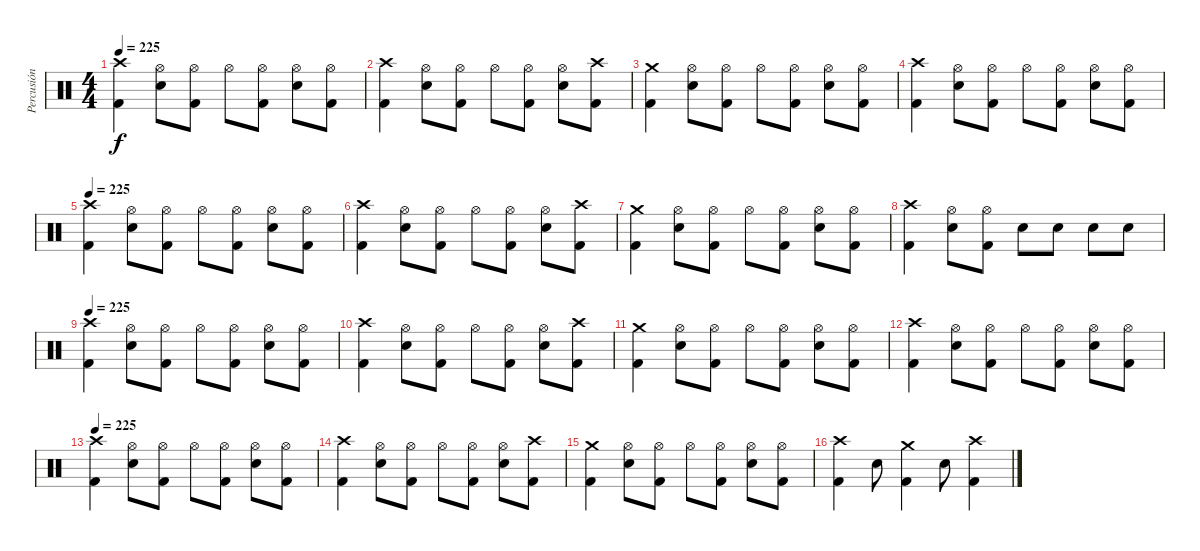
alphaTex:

\track ("Percusión" "Percusión") {instrument percussion}
\staff {score}
\articulation defaults
\ts (4 4)
\tempo 225
\clef neutral
\ks c
("Crash high (hit)" "Kick (hit) 2").4{dy f} ("Hi-Hat (open)" "Electric Snare (hit)").8 ("Hi-Hat (open)" "Kick (hit) 2").8 "Hi-Hat (open)".8 ("Hi-Hat (open)" "Kick (hit) 2").8 ("Hi-Hat (open)" "Electric Snare (hit)").8 ("Hi-Hat (open)" "Kick (hit) 2").8 |
("Crash high (hit)" "Kick (hit) 2").4 ("Hi-Hat (open)" "Electric Snare (hit)").8 ("Hi-Hat (open)" "Kick (hit) 2").8 "Hi-Hat (open)".8 ("Hi-Hat (open)" "Kick (hit) 2").8 ("Hi-Hat (open)" "Electric Snare (hit)").8 ("Crash high (hit)" "Kick (hit) 2").8 |
("Crash medium (hit)" "Kick (hit) 2").4 ("Hi-Hat (open)" "Electric Snare (hit)").8 ("Hi-Hat (open)" "Kick (hit) 2").8 "Hi-Hat (open)".8 ("Hi-Hat (open)" "Kick (hit) 2").8 ("Hi-Hat (open)" "Electric Snare (hit)").8 ("Hi-Hat (open)" "Kick (hit) 2").8 |
("Crash high (hit)" "Kick (hit) 2").4 ("Hi-Hat (open)" "Electric Snare (hit)").8 ("Hi-Hat (open)" "Kick (hit) 2").8 "Hi-Hat (open)".8 ("Hi-Hat (open)" "Kick (hit) 2").8 ("Hi-Hat (open)" "Electric Snare (hit)").8 ("Hi-Hat (open)" "Kick (hit) 2").8 |
\tempo 225
("Crash high (hit)" "Kick (hit) 2").4 ("Hi-Hat (open)" "Electric Snare (hit)").8 ("Hi-Hat (open)" "Kick (hit) 2").8 "Hi-Hat (open)".8 ("Hi-Hat (open)" "Kick (hit) 2").8 ("Hi-Hat (open)" "Electric Snare (hit)").8 ("Hi-Hat (open)" "Kick (hit) 2").8 |
("Crash high (hit)" "Kick (hit) 2").4 ("Hi-Hat (open)" "Electric Snare (hit)").8 ("Hi-Hat (open)" "Kick (hit) 2").8 "Hi-Hat (open)".8 ("Hi-Hat (open)" "Kick (hit) 2").8 ("Hi-Hat (open)" "Electric Snare (hit)").8 ("Crash high (hit)" "Kick (hit) 2").8 |
("Crash medium (hit)" "Kick (hit) 2").4 ("Hi-Hat (open)" "Electric Snare (hit)").8 ("Hi-Hat (open)" "Kick (hit) 2").8 "Hi-Hat (open)".8 ("Hi-Hat (open)" "Kick (hit) 2").8 ("Hi-Hat (open)" "Electric Snare (hit)").8 ("Hi-Hat (open)" "Kick (hit) 2").8 |
("Crash high (hit)" "Kick (hit) 2").4 ("Hi-Hat (open)" "Electric Snare (hit)").8 ("Hi-Hat (open)" "Kick (hit) 2").8 "Electric Snare (hit)".8 "Electric Snare (hit)".8 "Electric Snare (hit)".8 "Electric Snare (hit)".8 |
\tempo 225
("Crash high (hit)" "Kick (hit) 2").4 ("Hi-Hat (open)" "Electric Snare (hit)").8 ("Hi-Hat (open)" "Kick (hit) 2").8 "Hi-Hat (open)".8 ("Hi-Hat (open)" "Kick (hit) 2").8 ("Hi-Hat (open)" "Electric Snare (hit)").8 ("Hi-Hat (open)" "Kick (hit) 2").8 |
("Crash high (hit)" "Kick (hit) 2").4 ("Hi-Hat (open)" "Electric Snare (hit)").8 ("Hi-Hat (open)" "Kick (hit) 2").8 "Hi-Hat (open)".8 ("Hi-Hat (open)" "Kick (hit) 2").8 ("Hi-Hat (open)" "Electric Snare (hit)").8 ("Crash high (hit)" "Kick (hit) 2").8 |
("Crash medium (hit)" "Kick (hit) 2").4 ("Hi-Hat (open)" "Electric Snare (hit)").8 ("Hi-Hat (open)" "Kick (hit) 2").8 "Hi-Hat (open)".8 ("Hi-Hat (open)" "Kick (hit) 2").8 ("Hi-Hat (open)" "Electric Snare (hit)").8 ("Hi-Hat (open)" "Kick (hit) 2").8 |
("Crash high (hit)" "Kick (hit) 2").4 ("Hi-Hat (open)" "Electric Snare (hit)").8 ("Hi-Hat (open)" "Kick (hit) 2").8 "Hi-Hat (open)".8 ("Hi-Hat (open)" "Kick (hit) 2").8 ("Hi-Hat (open)" "Electric Snare (hit)").8 ("Hi-Hat (open)" "Kick (hit) 2").8 |
\tempo 225
("Crash high (hit)" "Kick (hit) 2").4 ("Hi-Hat (open)" "Electric Snare (hit)").8 ("Hi-Hat (open)" "Kick (hit) 2").8 "Hi-Hat (open)".8 ("Hi-Hat (open)" "Kick (hit) 2").8 ("Hi-Hat (open)" "Electric Snare (hit)").8 ("Hi-Hat (open)" "Kick (hit) 2").8 |
("Crash high (hit)" "Kick (hit) 2").4 ("Hi-Hat (open)" "Electric Snare (hit)").8 ("Hi-Hat (open)" "Kick (hit) 2").8 "Hi-Hat (open)".8 ("Hi-Hat (open)" "Kick (hit) 2").8 ("Hi-Hat (open)" "Electric Snare (hit)").8 ("Crash high (hit)" "Kick (hit) 2").8 |
("Crash medium (hit)" "Kick (hit) 2").4 ("Hi-Hat (open)" "Electric Snare (hit)").8 ("Hi-Hat (open)" "Kick (hit) 2").8 "Hi-Hat (open)".8 ("Hi-Hat (open)" "Kick (hit) 2").8 ("Hi-Hat (open)" "Electric Snare (hit)").8 ("Hi-Hat (open)" "Kick (hit) 2").8 |
("Crash high (hit)" "Kick (hit) 2").4 "Electric Snare (hit)".8 ("Crash medium (hit)" "Kick (hit) 2").4 "Electric Snare (hit)".8 ("Crash high (hit)" "Kick (hit) 2").4
